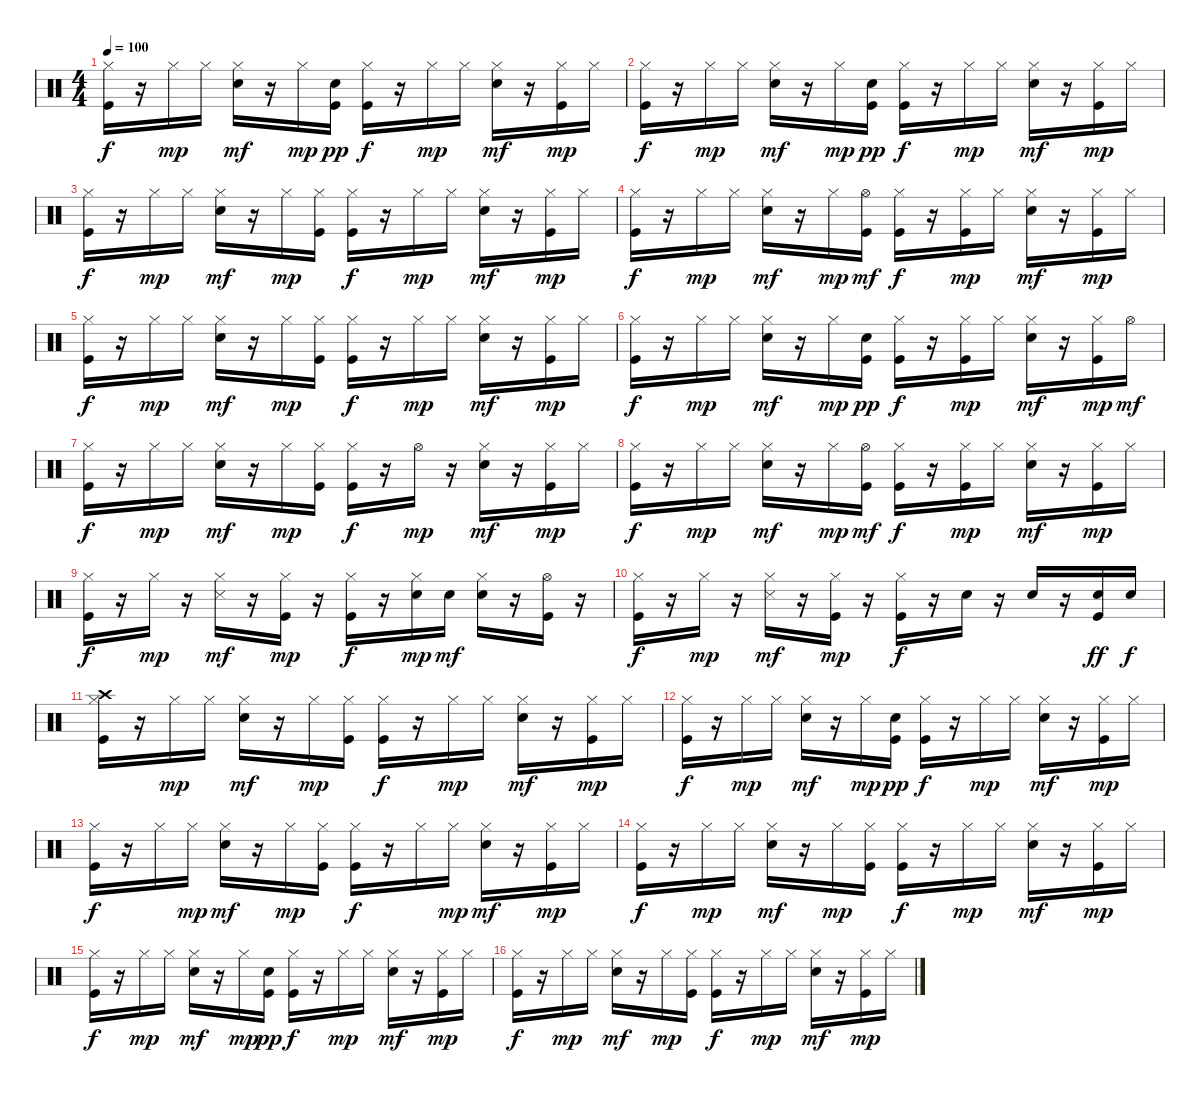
\track "" {instrument percussion}
\staff {score}
\articulation defaults
\ts (4 4)
\tempo 100
\clef neutral
\ks c
("Kick (hit)" "Hi-Hat (closed)").16{dy f} r.16 "Hi-Hat (closed)".16{dy mp} "Hi-Hat (closed)".16 ("Snare (hit) 2" "Hi-Hat (closed)").16{dy mf} r.16 "Hi-Hat (closed)".16{dy mp} ("Kick (hit)" "Snare (hit) 2").16{dy pp} ("Kick (hit)" "Hi-Hat (closed)").16{dy f} r.16 "Hi-Hat (closed)".16{dy mp} "Hi-Hat (closed)".16 ("Snare (hit) 2" "Hi-Hat (closed)").16{dy mf} r.16 ("Kick (hit)" "Hi-Hat (closed)").16{dy mp} "Hi-Hat (closed)".16 |
("Kick (hit)" "Hi-Hat (closed)").16{dy f} r.16 "Hi-Hat (closed)".16{dy mp} "Hi-Hat (closed)".16 ("Snare (hit) 2" "Hi-Hat (closed)").16{dy mf} r.16 "Hi-Hat (closed)".16{dy mp} ("Kick (hit)" "Snare (hit) 2").16{dy pp} ("Kick (hit)" "Hi-Hat (closed)").16{dy f} r.16 "Hi-Hat (closed)".16{dy mp} "Hi-Hat (closed)".16 ("Snare (hit) 2" "Hi-Hat (closed)").16{dy mf} r.16 ("Kick (hit)" "Hi-Hat (closed)").16{dy mp} "Hi-Hat (closed)".16 |
("Kick (hit)" "Hi-Hat (closed)").16{dy f} r.16 "Hi-Hat (closed)".16{dy mp} "Hi-Hat (closed)".16 ("Snare (hit) 2" "Hi-Hat (closed)").16{dy mf} r.16 "Hi-Hat (closed)".16{dy mp} ("Kick (hit)" "Hi-Hat (closed)").16 ("Kick (hit)" "Hi-Hat (closed)").16{dy f} r.16 "Hi-Hat (closed)".16{dy mp} "Hi-Hat (closed)".16 ("Snare (hit) 2" "Hi-Hat (closed)").16{dy mf} r.16 ("Kick (hit)" "Hi-Hat (closed)").16{dy mp} "Hi-Hat (closed)".16 |
("Kick (hit)" "Hi-Hat (closed)").16{dy f} r.16 "Hi-Hat (closed)".16{dy mp} "Hi-Hat (closed)".16 ("Snare (hit) 2" "Hi-Hat (closed)").16{dy mf} r.16 "Hi-Hat (closed)".16{dy mp} ("Kick (hit)" "Hi-Hat (open)").16{dy mf} ("Kick (hit)" "Hi-Hat (closed)").16{dy f} r.16 ("Kick (hit)" "Hi-Hat (closed)").16{dy mp} "Hi-Hat (closed)".16 ("Snare (hit) 2" "Hi-Hat (closed)").16{dy mf} r.16 ("Kick (hit)" "Hi-Hat (closed)").16{dy mp} "Hi-Hat (closed)".16 |
("Kick (hit)" "Hi-Hat (closed)").16{dy f} r.16 "Hi-Hat (closed)".16{dy mp} "Hi-Hat (closed)".16 ("Snare (hit) 2" "Hi-Hat (closed)").16{dy mf} r.16 "Hi-Hat (closed)".16{dy mp} ("Kick (hit)" "Hi-Hat (closed)").16 ("Kick (hit)" "Hi-Hat (closed)").16{dy f} r.16 "Hi-Hat (closed)".16{dy mp} "Hi-Hat (closed)".16 ("Snare (hit) 2" "Hi-Hat (closed)").16{dy mf} r.16 ("Kick (hit)" "Hi-Hat (closed)").16{dy mp} "Hi-Hat (closed)".16 |
("Kick (hit)" "Hi-Hat (closed)").16{dy f} r.16 "Hi-Hat (closed)".16{dy mp} "Hi-Hat (closed)".16 ("Snare (hit) 2" "Hi-Hat (closed)").16{dy mf} r.16 "Hi-Hat (closed)".16{dy mp} ("Kick (hit)" "Snare (hit) 2").16{dy pp} ("Kick (hit)" "Hi-Hat (closed)").16{dy f} r.16 ("Kick (hit)" "Hi-Hat (closed)").16{dy mp} "Hi-Hat (closed)".16 ("Snare (hit) 2" "Hi-Hat (closed)").16{dy mf} r.16 ("Kick (hit)" "Hi-Hat (closed)").16{dy mp} "Hi-Hat (open)".16{dy mf} |
("Kick (hit)" "Hi-Hat (closed)").16{dy f} r.16 "Hi-Hat (closed)".16{dy mp} "Hi-Hat (closed)".16 ("Snare (hit) 2" "Hi-Hat (closed)").16{dy mf} r.16 "Hi-Hat (closed)".16{dy mp} ("Kick (hit)" "Hi-Hat (closed)").16 ("Kick (hit)" "Hi-Hat (closed)").16{dy f} r.16 "Hi-Hat (open)".16{dy mp} r.16 ("Snare (hit) 2" "Hi-Hat (closed)").16{dy mf} r.16 ("Kick (hit)" "Hi-Hat (closed)").16{dy mp} "Hi-Hat (closed)".16 |
("Kick (hit)" "Hi-Hat (closed)").16{dy f} r.16 "Hi-Hat (closed)".16{dy mp} "Hi-Hat (closed)".16 ("Snare (hit) 2" "Hi-Hat (closed)").16{dy mf} r.16 "Hi-Hat (closed)".16{dy mp} ("Kick (hit)" "Hi-Hat (open)").16{dy mf} ("Kick (hit)" "Hi-Hat (closed)").16{dy f} r.16 ("Kick (hit)" "Hi-Hat (closed)").16{dy mp} "Hi-Hat (closed)".16 ("Snare (hit) 2" "Hi-Hat (closed)").16{dy mf} r.16 ("Kick (hit)" "Hi-Hat (closed)").16{dy mp} "Hi-Hat (closed)".16 |
("Kick (hit)" "Hi-Hat (closed)").16{dy f} r.16 "Hi-Hat (closed)".16{dy mp} r.16 ("Hi-Hat (closed)" "Snare (side stick) 3").16{dy mf} r.16 ("Kick (hit)" "Hi-Hat (closed)").16{dy mp} r.16 ("Kick (hit)" "Hi-Hat (closed)").16{dy f} r.16 ("Snare (hit) 2" "Hi-Hat (closed)").16{dy mp} "Snare (hit) 2".16{dy mf} ("Snare (hit) 2" "Hi-Hat (closed)").16 r.16 ("Kick (hit)" "Hi-Hat (open)").16 r.16 |
("Kick (hit)" "Hi-Hat (closed)").16{dy f} r.16 "Hi-Hat (closed)".16{dy mp} r.16 ("Hi-Hat (closed)" "Snare (side stick) 3").16{dy mf} r.16 ("Kick (hit)" "Hi-Hat (closed)").16{dy mp} r.16 ("Kick (hit)" "Hi-Hat (closed)").16{dy f} r.16 "Snare (hit) 2".16 r.16 "Snare (hit) 2".16 r.16 ("Kick (hit)" "Snare (hit) 2").16{dy ff} "Snare (hit) 2".16{dy f} |
("Kick (hit)" "Hi-Hat (closed)" "Crash high (hit)").16 r.16 "Hi-Hat (closed)".16{dy mp} "Hi-Hat (closed)".16 ("Snare (hit) 2" "Hi-Hat (closed)").16{dy mf} r.16 "Hi-Hat (closed)".16{dy mp} ("Kick (hit)" "Hi-Hat (closed)").16 ("Kick (hit)" "Hi-Hat (closed)").16{dy f} r.16 "Hi-Hat (closed)".16{dy mp} "Hi-Hat (closed)".16 ("Snare (hit) 2" "Hi-Hat (closed)").16{dy mf} r.16 ("Kick (hit)" "Hi-Hat (closed)").16{dy mp} "Hi-Hat (closed)".16 |
("Kick (hit)" "Hi-Hat (closed)").16{dy f} r.16 "Hi-Hat (closed)".16{dy mp} "Hi-Hat (closed)".16 ("Snare (hit) 2" "Hi-Hat (closed)").16{dy mf} r.16 "Hi-Hat (closed)".16{dy mp} ("Kick (hit)" "Snare (hit) 2").16{dy pp} ("Kick (hit)" "Hi-Hat (closed)").16{dy f} r.16 "Hi-Hat (closed)".16{dy mp} "Hi-Hat (closed)".16 ("Snare (hit) 2" "Hi-Hat (closed)").16{dy mf} r.16 ("Kick (hit)" "Hi-Hat (closed)").16{dy mp} "Hi-Hat (closed)".16 |
("Kick (hit)" "Hi-Hat (closed)").16{dy f} r.16 "Hi-Hat (closed)".16 "Hi-Hat (closed)".16{dy mp} ("Snare (hit) 2" "Hi-Hat (closed)").16{dy mf} r.16 "Hi-Hat (closed)".16{dy mp} ("Kick (hit)" "Hi-Hat (closed)").16 ("Kick (hit)" "Hi-Hat (closed)").16{dy f} r.16 "Hi-Hat (closed)".16 "Hi-Hat (closed)".16{dy mp} ("Snare (hit) 2" "Hi-Hat (closed)").16{dy mf} r.16 ("Kick (hit)" "Hi-Hat (closed)").16{dy mp} "Hi-Hat (closed)".16 |
("Kick (hit)" "Hi-Hat (closed)").16{dy f} r.16 "Hi-Hat (closed)".16{dy mp} "Hi-Hat (closed)".16 ("Snare (hit) 2" "Hi-Hat (closed)").16{dy mf} r.16 "Hi-Hat (closed)".16{dy mp} ("Kick (hit)" "Hi-Hat (closed)").16 ("Kick (hit)" "Hi-Hat (closed)").16{dy f} r.16 "Hi-Hat (closed)".16{dy mp} "Hi-Hat (closed)".16 ("Snare (hit) 2" "Hi-Hat (closed)").16{dy mf} r.16 ("Kick (hit)" "Hi-Hat (closed)").16{dy mp} "Hi-Hat (closed)".16 |
("Kick (hit)" "Hi-Hat (closed)").16{dy f} r.16 "Hi-Hat (closed)".16{dy mp} "Hi-Hat (closed)".16 ("Snare (hit) 2" "Hi-Hat (closed)").16{dy mf} r.16 "Hi-Hat (closed)".16{dy mp} ("Kick (hit)" "Snare (hit) 2").16{dy pp} ("Kick (hit)" "Hi-Hat (closed)").16{dy f} r.16 "Hi-Hat (closed)".16{dy mp} "Hi-Hat (closed)".16 ("Snare (hit) 2" "Hi-Hat (closed)").16{dy mf} r.16 ("Kick (hit)" "Hi-Hat (closed)").16{dy mp} "Hi-Hat (closed)".16 |
("Kick (hit)" "Hi-Hat (closed)").16{dy f} r.16 "Hi-Hat (closed)".16{dy mp} "Hi-Hat (closed)".16 ("Snare (hit) 2" "Hi-Hat (closed)").16{dy mf} r.16 "Hi-Hat (closed)".16{dy mp} ("Kick (hit)" "Hi-Hat (closed)").16 ("Kick (hit)" "Hi-Hat (closed)").16{dy f} r.16 "Hi-Hat (closed)".16{dy mp} "Hi-Hat (closed)".16 ("Snare (hit) 2" "Hi-Hat (closed)").16{dy mf} r.16 ("Kick (hit)" "Hi-Hat (closed)").16{dy mp} "Hi-Hat (closed)".16
